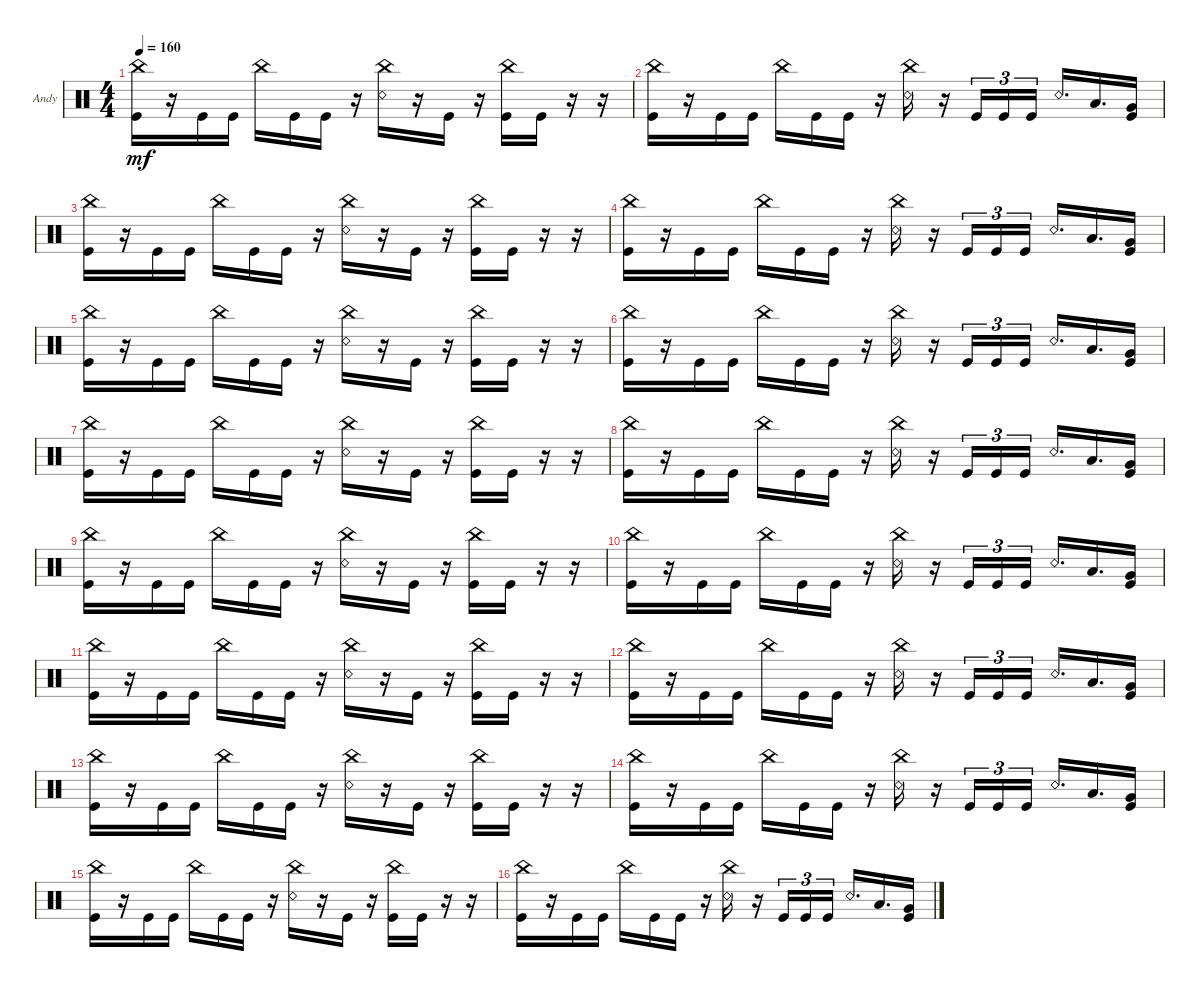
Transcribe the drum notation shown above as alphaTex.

\defaultSystemsLayout 4
\bracketExtendMode groupsimilarinstruments
\firstSystemTrackNameOrientation horizontal
\otherSystemsTrackNameOrientation horizontal
\track ("Drums" "Andy") {instrument percussion}
\staff {score}
\articulation defaults
\ts (4 4)
\tempo 160
\clef neutral
\ks c
("Kick (hit)" "China (hit)").16{dy mf} r.16 "Kick (hit)".16 "Kick (hit)".16 "China (hit)".16 "Kick (hit)".16 "Kick (hit)".16 r.16 ("Snare (rim shot)" "China (hit)").16 r.16 "Kick (hit)".16 r.16 ("Kick (hit)" "China (hit)").16 "Kick (hit)".16 r.16 r.16 |
\scale
0.29021 ("Kick (hit)" "China (hit)").16 r.16 "Kick (hit)".16 "Kick (hit)".16 "China (hit)".16 "Kick (hit)".16 "Kick (hit)".16 r.16 ("Snare (rim shot)" "China (hit)").16 r.16 "Kick (hit)".16{tu (3 2)} "Kick (hit)".16{tu (3 2)} "Kick (hit)".16{tu (3 2)} "Snare (rim shot)".16{d} "Low Tom (hit)".16{d} ("Kick (hit)" "Very Low Tom (hit)").16 |
("Kick (hit)" "China (hit)").16 r.16 "Kick (hit)".16 "Kick (hit)".16 "China (hit)".16 "Kick (hit)".16 "Kick (hit)".16 r.16 ("Snare (rim shot)" "China (hit)").16 r.16 "Kick (hit)".16 r.16 ("Kick (hit)" "China (hit)").16 "Kick (hit)".16 r.16 r.16 |
("Kick (hit)" "China (hit)").16 r.16 "Kick (hit)".16 "Kick (hit)".16 "China (hit)".16 "Kick (hit)".16 "Kick (hit)".16 r.16 ("Snare (rim shot)" "China (hit)").16 r.16 "Kick (hit)".16{tu (3 2)} "Kick (hit)".16{tu (3 2)} "Kick (hit)".16{tu (3 2)} "Snare (rim shot)".16{d} "Low Tom (hit)".16{d} ("Kick (hit)" "Very Low Tom (hit)").16 |
("Kick (hit)" "China (hit)").16 r.16 "Kick (hit)".16 "Kick (hit)".16 "China (hit)".16 "Kick (hit)".16 "Kick (hit)".16 r.16 ("Snare (rim shot)" "China (hit)").16 r.16 "Kick (hit)".16 r.16 ("Kick (hit)" "China (hit)").16 "Kick (hit)".16 r.16 r.16 |
("Kick (hit)" "China (hit)").16 r.16 "Kick (hit)".16 "Kick (hit)".16 "China (hit)".16 "Kick (hit)".16 "Kick (hit)".16 r.16 ("Snare (rim shot)" "China (hit)").16 r.16 "Kick (hit)".16{tu (3 2)} "Kick (hit)".16{tu (3 2)} "Kick (hit)".16{tu (3 2)} "Snare (rim shot)".16{d} "Low Tom (hit)".16{d} ("Kick (hit)" "Very Low Tom (hit)").16 |
("Kick (hit)" "China (hit)").16 r.16 "Kick (hit)".16 "Kick (hit)".16 "China (hit)".16 "Kick (hit)".16 "Kick (hit)".16 r.16 ("Snare (rim shot)" "China (hit)").16 r.16 "Kick (hit)".16 r.16 ("Kick (hit)" "China (hit)").16 "Kick (hit)".16 r.16 r.16 |
("Kick (hit)" "China (hit)").16 r.16 "Kick (hit)".16 "Kick (hit)".16 "China (hit)".16 "Kick (hit)".16 "Kick (hit)".16 r.16 ("Snare (rim shot)" "China (hit)").16 r.16 "Kick (hit)".16{tu (3 2)} "Kick (hit)".16{tu (3 2)} "Kick (hit)".16{tu (3 2)} "Snare (rim shot)".16{d} "Low Tom (hit)".16{d} ("Kick (hit)" "Very Low Tom (hit)").16 |
("Kick (hit)" "China (hit)").16 r.16 "Kick (hit)".16 "Kick (hit)".16 "China (hit)".16 "Kick (hit)".16 "Kick (hit)".16 r.16 ("Snare (rim shot)" "China (hit)").16 r.16 "Kick (hit)".16 r.16 ("Kick (hit)" "China (hit)").16 "Kick (hit)".16 r.16 r.16 |
("Kick (hit)" "China (hit)").16 r.16 "Kick (hit)".16 "Kick (hit)".16 "China (hit)".16 "Kick (hit)".16 "Kick (hit)".16 r.16 ("Snare (rim shot)" "China (hit)").16 r.16 "Kick (hit)".16{tu (3 2)} "Kick (hit)".16{tu (3 2)} "Kick (hit)".16{tu (3 2)} "Snare (rim shot)".16{d} "Low Tom (hit)".16{d} ("Kick (hit)" "Very Low Tom (hit)").16 |
("Kick (hit)" "China (hit)").16 r.16 "Kick (hit)".16 "Kick (hit)".16 "China (hit)".16 "Kick (hit)".16 "Kick (hit)".16 r.16 ("Snare (rim shot)" "China (hit)").16 r.16 "Kick (hit)".16 r.16 ("Kick (hit)" "China (hit)").16 "Kick (hit)".16 r.16 r.16 |
("Kick (hit)" "China (hit)").16 r.16 "Kick (hit)".16 "Kick (hit)".16 "China (hit)".16 "Kick (hit)".16 "Kick (hit)".16 r.16 ("Snare (rim shot)" "China (hit)").16 r.16 "Kick (hit)".16{tu (3 2)} "Kick (hit)".16{tu (3 2)} "Kick (hit)".16{tu (3 2)} "Snare (rim shot)".16{d} "Low Tom (hit)".16{d} ("Kick (hit)" "Very Low Tom (hit)").16 |
("Kick (hit)" "China (hit)").16 r.16 "Kick (hit)".16 "Kick (hit)".16 "China (hit)".16 "Kick (hit)".16 "Kick (hit)".16 r.16 ("Snare (rim shot)" "China (hit)").16 r.16 "Kick (hit)".16 r.16 ("Kick (hit)" "China (hit)").16 "Kick (hit)".16 r.16 r.16 |
("Kick (hit)" "China (hit)").16 r.16 "Kick (hit)".16 "Kick (hit)".16 "China (hit)".16 "Kick (hit)".16 "Kick (hit)".16 r.16 ("Snare (rim shot)" "China (hit)").16 r.16 "Kick (hit)".16{tu (3 2)} "Kick (hit)".16{tu (3 2)} "Kick (hit)".16{tu (3 2)} "Snare (rim shot)".16{d} "Low Tom (hit)".16{d} ("Kick (hit)" "Very Low Tom (hit)").16 |
("Kick (hit)" "China (hit)").16 r.16 "Kick (hit)".16 "Kick (hit)".16 "China (hit)".16 "Kick (hit)".16 "Kick (hit)".16 r.16 ("Snare (rim shot)" "China (hit)").16 r.16 "Kick (hit)".16 r.16 ("Kick (hit)" "China (hit)").16 "Kick (hit)".16 r.16 r.16 |
("Kick (hit)" "China (hit)").16 r.16 "Kick (hit)".16 "Kick (hit)".16 "China (hit)".16 "Kick (hit)".16 "Kick (hit)".16 r.16 ("Snare (rim shot)" "China (hit)").16 r.16 "Kick (hit)".16{tu (3 2)} "Kick (hit)".16{tu (3 2)} "Kick (hit)".16{tu (3 2)} "Snare (rim shot)".16{d} "Low Tom (hit)".16{d} ("Kick (hit)" "Very Low Tom (hit)").16
